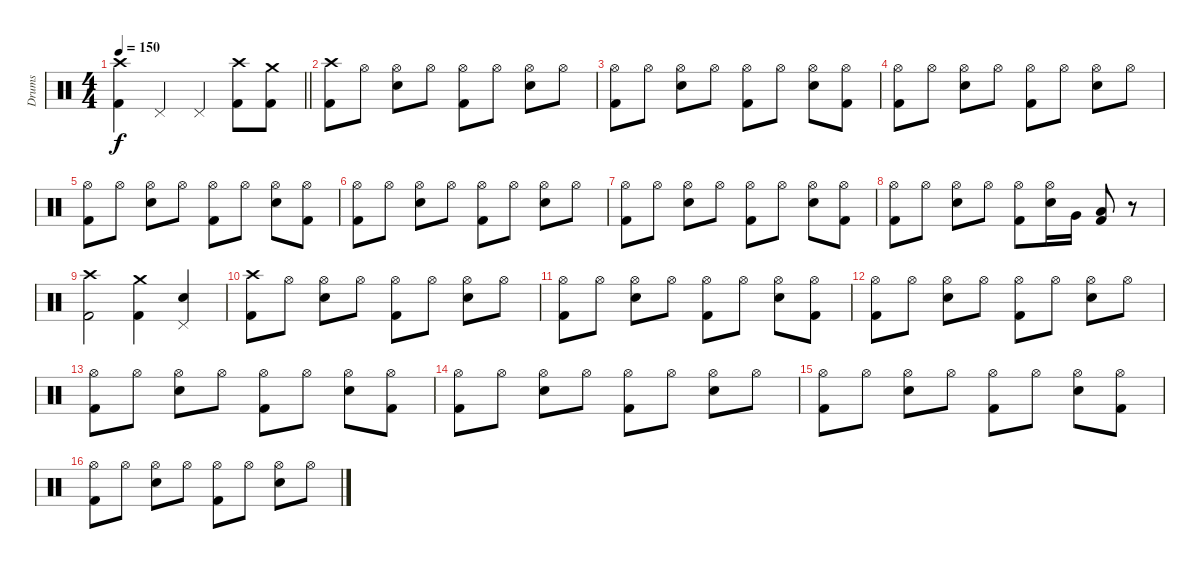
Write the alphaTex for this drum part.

\track ("Drums" "Drums") {instrument percussion}
\staff {score}
\articulation defaults
\ts (4 4)
\tempo 150
\clef neutral
\barLineRight lightlight
\ks c
("Crash high (hit)" "Kick (hit) 2").4{dy f} "Pedal Hi-Hat (hit)".4 "Pedal Hi-Hat (hit)".4 ("Crash high (hit)" "Kick (hit) 2").8 ("Crash medium (hit)" "Kick (hit) 2").8 |
("Crash high (hit)" "Kick (hit) 2").8 "Hi-Hat (open)".8 ("Hi-Hat (open)" "Snare (hit) 2").8 "Hi-Hat (open)".8 ("Hi-Hat (open)" "Kick (hit) 2").8 "Hi-Hat (open)".8 ("Hi-Hat (open)" "Snare (hit) 2").8 "Hi-Hat (open)".8 |
("Hi-Hat (open)" "Kick (hit) 2").8 "Hi-Hat (open)".8 ("Hi-Hat (open)" "Snare (hit) 2").8 "Hi-Hat (open)".8 ("Hi-Hat (open)" "Kick (hit) 2").8 "Hi-Hat (open)".8 ("Hi-Hat (open)" "Snare (hit) 2").8 ("Hi-Hat (open)" "Kick (hit) 2").8 |
("Hi-Hat (open)" "Kick (hit) 2").8 "Hi-Hat (open)".8 ("Hi-Hat (open)" "Snare (hit) 2").8 "Hi-Hat (open)".8 ("Hi-Hat (open)" "Kick (hit) 2").8 "Hi-Hat (open)".8 ("Hi-Hat (open)" "Snare (hit) 2").8 "Hi-Hat (open)".8 |
("Hi-Hat (open)" "Kick (hit) 2").8 "Hi-Hat (open)".8 ("Hi-Hat (open)" "Snare (hit) 2").8 "Hi-Hat (open)".8 ("Hi-Hat (open)" "Kick (hit) 2").8 "Hi-Hat (open)".8 ("Hi-Hat (open)" "Snare (hit) 2").8 ("Hi-Hat (open)" "Kick (hit) 2").8 |
("Hi-Hat (open)" "Kick (hit) 2").8 "Hi-Hat (open)".8 ("Hi-Hat (open)" "Snare (hit) 2").8 "Hi-Hat (open)".8 ("Hi-Hat (open)" "Kick (hit) 2").8 "Hi-Hat (open)".8 ("Hi-Hat (open)" "Snare (hit) 2").8 "Hi-Hat (open)".8 |
("Hi-Hat (open)" "Kick (hit) 2").8 "Hi-Hat (open)".8 ("Hi-Hat (open)" "Snare (hit) 2").8 "Hi-Hat (open)".8 ("Hi-Hat (open)" "Kick (hit) 2").8 "Hi-Hat (open)".8 ("Hi-Hat (open)" "Snare (hit) 2").8 ("Hi-Hat (open)" "Kick (hit) 2").8 |
("Hi-Hat (open)" "Kick (hit) 2").8 "Hi-Hat (open)".8 ("Hi-Hat (open)" "Snare (hit) 2").8 "Hi-Hat (open)".8 ("Hi-Hat (open)" "Kick (hit) 2").8 ("Hi-Hat (open)" "Snare (hit) 2").16 "Very Low Tom (hit)".16 ("Low Floor Tom (hit)" "Kick (hit) 2").8 r.8 |
("Crash high (hit)" "Kick (hit) 2").2 ("Crash medium (hit)" "Kick (hit) 2").4 ("Pedal Hi-Hat (hit)" "Snare (hit) 2").4 |
("Crash high (hit)" "Kick (hit) 2").8 "Hi-Hat (open)".8 ("Hi-Hat (open)" "Snare (hit) 2").8 "Hi-Hat (open)".8 ("Hi-Hat (open)" "Kick (hit) 2").8 "Hi-Hat (open)".8 ("Hi-Hat (open)" "Snare (hit) 2").8 "Hi-Hat (open)".8 |
("Hi-Hat (open)" "Kick (hit) 2").8 "Hi-Hat (open)".8 ("Hi-Hat (open)" "Snare (hit) 2").8 "Hi-Hat (open)".8 ("Hi-Hat (open)" "Kick (hit) 2").8 "Hi-Hat (open)".8 ("Hi-Hat (open)" "Snare (hit) 2").8 ("Hi-Hat (open)" "Kick (hit) 2").8 |
("Hi-Hat (open)" "Kick (hit) 2").8 "Hi-Hat (open)".8 ("Hi-Hat (open)" "Snare (hit) 2").8 "Hi-Hat (open)".8 ("Hi-Hat (open)" "Kick (hit) 2").8 "Hi-Hat (open)".8 ("Hi-Hat (open)" "Snare (hit) 2").8 "Hi-Hat (open)".8 |
("Hi-Hat (open)" "Kick (hit) 2").8 "Hi-Hat (open)".8 ("Hi-Hat (open)" "Snare (hit) 2").8 "Hi-Hat (open)".8 ("Hi-Hat (open)" "Kick (hit) 2").8 "Hi-Hat (open)".8 ("Hi-Hat (open)" "Snare (hit) 2").8 ("Hi-Hat (open)" "Kick (hit) 2").8 |
("Hi-Hat (open)" "Kick (hit) 2").8 "Hi-Hat (open)".8 ("Hi-Hat (open)" "Snare (hit) 2").8 "Hi-Hat (open)".8 ("Hi-Hat (open)" "Kick (hit) 2").8 "Hi-Hat (open)".8 ("Hi-Hat (open)" "Snare (hit) 2").8 "Hi-Hat (open)".8 |
("Hi-Hat (open)" "Kick (hit) 2").8 "Hi-Hat (open)".8 ("Hi-Hat (open)" "Snare (hit) 2").8 "Hi-Hat (open)".8 ("Hi-Hat (open)" "Kick (hit) 2").8 "Hi-Hat (open)".8 ("Hi-Hat (open)" "Snare (hit) 2").8 ("Hi-Hat (open)" "Kick (hit) 2").8 |
("Hi-Hat (open)" "Kick (hit) 2").8 "Hi-Hat (open)".8 ("Hi-Hat (open)" "Snare (hit) 2").8 "Hi-Hat (open)".8 ("Hi-Hat (open)" "Kick (hit) 2").8 "Hi-Hat (open)".8 ("Hi-Hat (open)" "Snare (hit) 2").8 "Hi-Hat (open)".8
